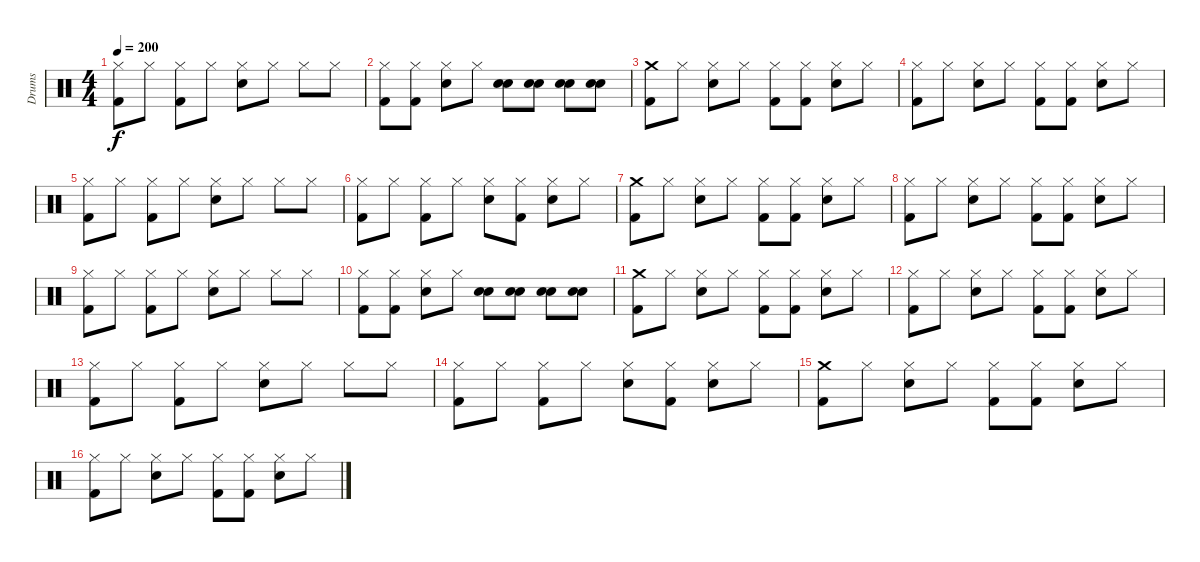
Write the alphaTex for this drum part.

\track ("Drums" "Drums") {instrument percussion}
\staff {score}
\articulation defaults
\ts (4 4)
\tempo 200
\clef neutral
\ks c
("Hi-Hat (closed)" "Kick (hit) 2").8{dy f} "Hi-Hat (closed)".8 ("Hi-Hat (closed)" "Kick (hit) 2").8 "Hi-Hat (closed)".8 ("Hi-Hat (closed)" "Snare (hit) 2").8 "Hi-Hat (closed)".8 "Hi-Hat (closed)".8 "Hi-Hat (closed)".8 |
("Hi-Hat (closed)" "Kick (hit) 2").8 ("Hi-Hat (closed)" "Kick (hit) 2").8 ("Hi-Hat (closed)" "Snare (hit) 2").8 "Hi-Hat (closed)".8 ("Snare (hit) 2" "Snare (hit) 2").8 ("Snare (hit) 2" "Snare (hit) 2").8 ("Snare (hit) 2" "Snare (hit) 2").8 ("Snare (hit) 2" "Snare (hit) 2").8 |
("Crash medium (hit)" "Kick (hit) 2").8 "Hi-Hat (closed)".8 ("Hi-Hat (closed)" "Snare (hit) 2").8 "Hi-Hat (closed)".8 ("Hi-Hat (closed)" "Kick (hit) 2").8 ("Hi-Hat (closed)" "Kick (hit) 2").8 ("Hi-Hat (closed)" "Snare (hit) 2").8 "Hi-Hat (closed)".8 |
("Hi-Hat (closed)" "Kick (hit) 2").8 "Hi-Hat (closed)".8 ("Hi-Hat (closed)" "Snare (hit) 2").8 "Hi-Hat (closed)".8 ("Hi-Hat (closed)" "Kick (hit) 2").8 ("Hi-Hat (closed)" "Kick (hit) 2").8 ("Hi-Hat (closed)" "Snare (hit) 2").8 "Hi-Hat (closed)".8 |
("Hi-Hat (closed)" "Kick (hit) 2").8 "Hi-Hat (closed)".8 ("Hi-Hat (closed)" "Kick (hit) 2").8 "Hi-Hat (closed)".8 ("Hi-Hat (closed)" "Snare (hit) 2").8 "Hi-Hat (closed)".8 "Hi-Hat (closed)".8 "Hi-Hat (closed)".8 |
("Hi-Hat (closed)" "Kick (hit) 2").8 "Hi-Hat (closed)".8 ("Hi-Hat (closed)" "Kick (hit) 2").8 "Hi-Hat (closed)".8 ("Hi-Hat (closed)" "Snare (hit) 2").8 ("Hi-Hat (closed)" "Kick (hit) 2").8 ("Hi-Hat (closed)" "Snare (hit) 2").8 "Hi-Hat (closed)".8 |
("Crash medium (hit)" "Kick (hit) 2").8 "Hi-Hat (closed)".8 ("Hi-Hat (closed)" "Snare (hit) 2").8 "Hi-Hat (closed)".8 ("Hi-Hat (closed)" "Kick (hit) 2").8 ("Hi-Hat (closed)" "Kick (hit) 2").8 ("Hi-Hat (closed)" "Snare (hit) 2").8 "Hi-Hat (closed)".8 |
("Hi-Hat (closed)" "Kick (hit) 2").8 "Hi-Hat (closed)".8 ("Hi-Hat (closed)" "Snare (hit) 2").8 "Hi-Hat (closed)".8 ("Hi-Hat (closed)" "Kick (hit) 2").8 ("Hi-Hat (closed)" "Kick (hit) 2").8 ("Hi-Hat (closed)" "Snare (hit) 2").8 "Hi-Hat (closed)".8 |
("Hi-Hat (closed)" "Kick (hit) 2").8 "Hi-Hat (closed)".8 ("Hi-Hat (closed)" "Kick (hit) 2").8 "Hi-Hat (closed)".8 ("Hi-Hat (closed)" "Snare (hit) 2").8 "Hi-Hat (closed)".8 "Hi-Hat (closed)".8 "Hi-Hat (closed)".8 |
("Hi-Hat (closed)" "Kick (hit) 2").8 ("Hi-Hat (closed)" "Kick (hit) 2").8 ("Hi-Hat (closed)" "Snare (hit) 2").8 "Hi-Hat (closed)".8 ("Snare (hit) 2" "Snare (hit) 2").8 ("Snare (hit) 2" "Snare (hit) 2").8 ("Snare (hit) 2" "Snare (hit) 2").8 ("Snare (hit) 2" "Snare (hit) 2").8 |
("Crash medium (hit)" "Kick (hit) 2").8 "Hi-Hat (closed)".8 ("Hi-Hat (closed)" "Snare (hit) 2").8 "Hi-Hat (closed)".8 ("Hi-Hat (closed)" "Kick (hit) 2").8 ("Hi-Hat (closed)" "Kick (hit) 2").8 ("Hi-Hat (closed)" "Snare (hit) 2").8 "Hi-Hat (closed)".8 |
("Hi-Hat (closed)" "Kick (hit) 2").8 "Hi-Hat (closed)".8 ("Hi-Hat (closed)" "Snare (hit) 2").8 "Hi-Hat (closed)".8 ("Hi-Hat (closed)" "Kick (hit) 2").8 ("Hi-Hat (closed)" "Kick (hit) 2").8 ("Hi-Hat (closed)" "Snare (hit) 2").8 "Hi-Hat (closed)".8 |
("Hi-Hat (closed)" "Kick (hit) 2").8 "Hi-Hat (closed)".8 ("Hi-Hat (closed)" "Kick (hit) 2").8 "Hi-Hat (closed)".8 ("Hi-Hat (closed)" "Snare (hit) 2").8 "Hi-Hat (closed)".8 "Hi-Hat (closed)".8 "Hi-Hat (closed)".8 |
("Hi-Hat (closed)" "Kick (hit) 2").8 "Hi-Hat (closed)".8 ("Hi-Hat (closed)" "Kick (hit) 2").8 "Hi-Hat (closed)".8 ("Hi-Hat (closed)" "Snare (hit) 2").8 ("Hi-Hat (closed)" "Kick (hit) 2").8 ("Hi-Hat (closed)" "Snare (hit) 2").8 "Hi-Hat (closed)".8 |
("Crash medium (hit)" "Kick (hit) 2").8 "Hi-Hat (closed)".8 ("Hi-Hat (closed)" "Snare (hit) 2").8 "Hi-Hat (closed)".8 ("Hi-Hat (closed)" "Kick (hit) 2").8 ("Hi-Hat (closed)" "Kick (hit) 2").8 ("Hi-Hat (closed)" "Snare (hit) 2").8 "Hi-Hat (closed)".8 |
("Hi-Hat (closed)" "Kick (hit) 2").8 "Hi-Hat (closed)".8 ("Hi-Hat (closed)" "Snare (hit) 2").8 "Hi-Hat (closed)".8 ("Hi-Hat (closed)" "Kick (hit) 2").8 ("Hi-Hat (closed)" "Kick (hit) 2").8 ("Hi-Hat (closed)" "Snare (hit) 2").8 "Hi-Hat (closed)".8
